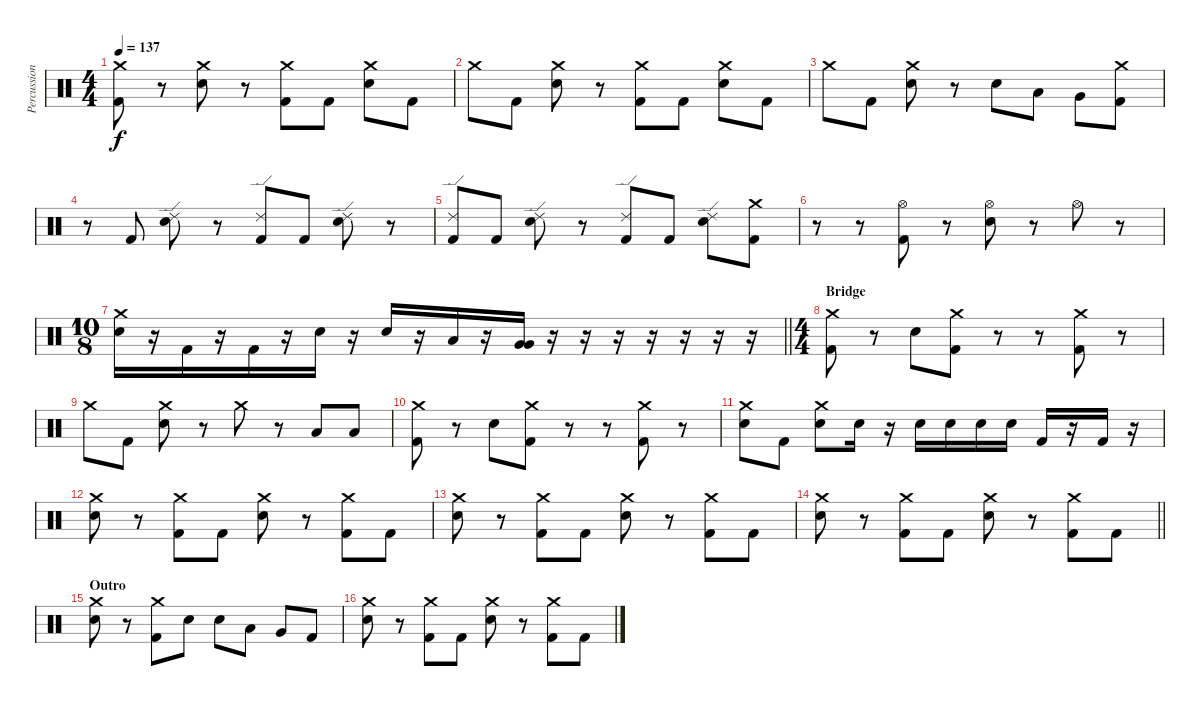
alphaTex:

\track ("Percussion" "Percussion") {instrument percussion}
\staff {score}
\articulation defaults
\ts (4 4)
\tempo 137
\clef neutral
\ks c
("Crash medium (hit)" "Kick (hit) 2").8{dy f} r.8 ("Crash medium (hit)" "Electric Snare (hit)").8 r.8 ("Crash medium (hit)" "Kick (hit) 2").8 "Kick (hit) 2".8 ("Crash medium (hit)" "Electric Snare (hit)").8 "Kick (hit) 2".8 |
"Crash medium (hit)".8 "Kick (hit) 2".8 ("Crash medium (hit)" "Electric Snare (hit)").8 r.8 ("Crash medium (hit)" "Kick (hit) 2").8 "Kick (hit) 2".8 ("Crash medium (hit)" "Electric Snare (hit)").8 "Kick (hit) 2".8 |
"Crash medium (hit)".8 "Kick (hit) 2".8 ("Crash medium (hit)" "Electric Snare (hit)").8 r.8 "Electric Snare (hit)".8 "Low Tom (hit)".8 "Very Low Tom (hit)".8 ("Crash medium (hit)" "Kick (hit) 2").8 |
r.8 "Kick (hit) 2".8 ("Ride (edge) 2" "Electric Snare (hit)").8 r.8 ("Ride (edge) 2" "Kick (hit) 2").8 "Kick (hit) 2".8 ("Ride (edge) 2" "Electric Snare (hit)").8 r.8 |
("Ride (edge) 2" "Kick (hit) 2").8 "Kick (hit) 2".8 ("Ride (edge) 2" "Electric Snare (hit)").8 r.8 ("Ride (edge) 2" "Kick (hit) 2").8 "Kick (hit) 2".8 ("Ride (edge) 2" "Electric Snare (hit)").8 ("Crash medium (hit)" "Kick (hit) 2").8 |
r.8 r.8 ("Hi-Hat (open)" "Kick (hit) 2").8 r.8 ("Hi-Hat (open)" "Electric Snare (hit)").8 r.8 "Hi-Hat (open)".8 r.8 |
\ts (10 8)
\barLineRight lightlight
("Crash medium (hit)" "Electric Snare (hit)").16 r.16 "Kick (hit) 2".16 r.16 "Kick (hit) 2".16 r.16 "Electric Snare (hit)".16 r.16 "Electric Snare (hit)".16 r.16 "Low Tom (hit)".16 r.16 ("Very Low Tom (hit)" "Very Low Tom (hit)").16 r.16 r.16 r.16 r.16 r.16 r.16 r.16 |
\ts (4 4)
\section ("" "Bridge")
("Crash medium (hit)" "Kick (hit) 2").8 r.8 "Electric Snare (hit)".8 ("Crash medium (hit)" "Kick (hit) 2").8 r.8 r.8 ("Crash medium (hit)" "Kick (hit) 2").8 r.8 |
"Crash medium (hit)".8 "Kick (hit) 2".8 ("Crash medium (hit)" "Electric Snare (hit)").8 r.8 "Crash medium (hit)".8 r.8 "Low Tom (hit)".8 "Low Tom (hit)".8 |
("Crash medium (hit)" "Kick (hit) 2").8 r.8 "Electric Snare (hit)".8 ("Crash medium (hit)" "Kick (hit) 2").8 r.8 r.8 ("Crash medium (hit)" "Kick (hit) 2").8 r.8 |
("Crash medium (hit)" "Electric Snare (hit)").8 "Kick (hit) 2".8 ("Crash medium (hit)" "Electric Snare (hit)").8 "Electric Snare (hit)".16 r.16 "Electric Snare (hit)".16 "Electric Snare (hit)".16 "Electric Snare (hit)".16 "Electric Snare (hit)".16 "Kick (hit) 2".16 r.16 "Kick (hit) 2".16 r.16 |
("Crash medium (hit)" "Electric Snare (hit)").8 r.8 ("Crash medium (hit)" "Kick (hit) 2").8 "Kick (hit) 2".8 ("Crash medium (hit)" "Electric Snare (hit)").8 r.8 ("Crash medium (hit)" "Kick (hit) 2").8 "Kick (hit) 2".8 |
("Crash medium (hit)" "Electric Snare (hit)").8 r.8 ("Crash medium (hit)" "Kick (hit) 2").8 "Kick (hit) 2".8 ("Crash medium (hit)" "Electric Snare (hit)").8 r.8 ("Crash medium (hit)" "Kick (hit) 2").8 "Kick (hit) 2".8 |
\barLineRight lightlight
("Crash medium (hit)" "Electric Snare (hit)").8 r.8 ("Crash medium (hit)" "Kick (hit) 2").8 "Kick (hit) 2".8 ("Crash medium (hit)" "Electric Snare (hit)").8 r.8 ("Crash medium (hit)" "Kick (hit) 2").8 "Kick (hit) 2".8 |
\section ("" "Outro")
("Crash medium (hit)" "Electric Snare (hit)").8 r.8 ("Crash medium (hit)" "Kick (hit) 2").8 "Electric Snare (hit)".8 "Electric Snare (hit)".8 "Low Tom (hit)".8 "Very Low Tom (hit)".8 "Kick (hit) 2".8 |
("Crash medium (hit)" "Electric Snare (hit)").8 r.8 ("Crash medium (hit)" "Kick (hit) 2").8 "Kick (hit) 2".8 ("Crash medium (hit)" "Electric Snare (hit)").8 r.8 ("Crash medium (hit)" "Kick (hit) 2").8 "Kick (hit) 2".8
